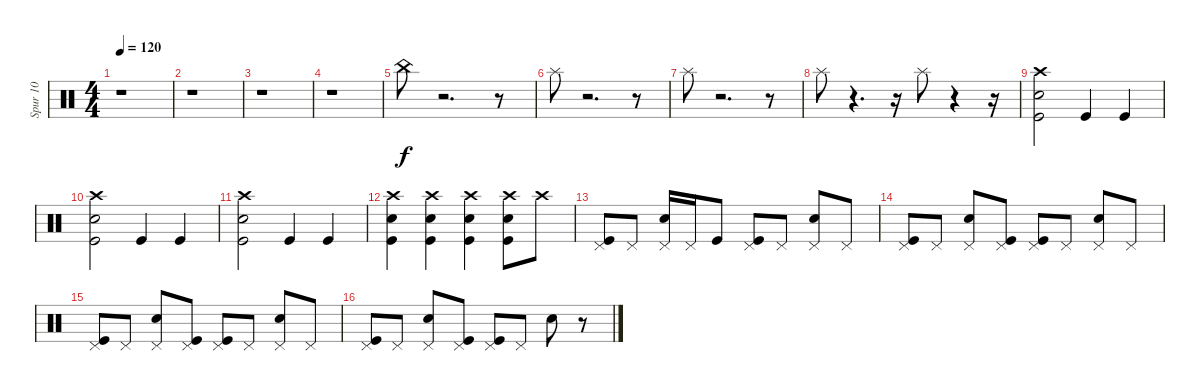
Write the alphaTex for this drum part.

\track ("Spur 10" "Spur 10") {instrument percussion}
\staff {score}
\articulation defaults
\ts (4 4)
\tempo 120
\clef neutral
\ks c
r.1{dy f} |
r.1 |
r.1 |
r.1 |
"China (hit)".8 r.2{d} r.8 |
"Splash (hit)".8 r.2{d} r.8 |
"Splash (hit)".8 r.2{d} r.8 |
"Splash (hit)".8 r.4{d} r.16 "Splash (hit)".8 r.4 r.16 |
("Crash high (hit)" "Snare (hit) 2" "Kick (hit)").2 "Kick (hit)".4 "Kick (hit)".4 |
("Crash high (hit)" "Snare (hit) 2" "Kick (hit)").2 "Kick (hit)".4 "Kick (hit)".4 |
("Crash high (hit)" "Snare (hit) 2" "Kick (hit)").2 "Kick (hit)".4 "Kick (hit)".4 |
("Crash high (hit)" "Snare (hit) 2" "Kick (hit)").4 ("Crash high (hit)" "Kick (hit)" "Snare (hit) 2").4 ("Crash high (hit)" "Kick (hit)" "Snare (hit) 2").4 ("Crash high (hit)" "Kick (hit)" "Snare (hit) 2").8 "Crash high (hit)".8 |
("Kick (hit)" "Pedal Hi-Hat (hit)").8 "Pedal Hi-Hat (hit)".8 ("Snare (hit) 2" "Pedal Hi-Hat (hit)").16 "Pedal Hi-Hat (hit)".16 "Kick (hit)".8 ("Kick (hit)" "Pedal Hi-Hat (hit)").8 "Pedal Hi-Hat (hit)".8 ("Snare (hit) 2" "Pedal Hi-Hat (hit)").8 "Pedal Hi-Hat (hit)".8 |
("Kick (hit)" "Pedal Hi-Hat (hit)").8 "Pedal Hi-Hat (hit)".8 ("Snare (hit) 2" "Pedal Hi-Hat (hit)").8 ("Kick (hit)" "Pedal Hi-Hat (hit)").8 ("Kick (hit)" "Pedal Hi-Hat (hit)").8 "Pedal Hi-Hat (hit)".8 ("Snare (hit) 2" "Pedal Hi-Hat (hit)").8 "Pedal Hi-Hat (hit)".8 |
("Kick (hit)" "Pedal Hi-Hat (hit)").8 "Pedal Hi-Hat (hit)".8 ("Snare (hit) 2" "Pedal Hi-Hat (hit)").8 ("Kick (hit)" "Pedal Hi-Hat (hit)").8 ("Kick (hit)" "Pedal Hi-Hat (hit)").8 "Pedal Hi-Hat (hit)".8 ("Snare (hit) 2" "Pedal Hi-Hat (hit)").8 "Pedal Hi-Hat (hit)".8 |
("Kick (hit)" "Pedal Hi-Hat (hit)").8 "Pedal Hi-Hat (hit)".8 ("Snare (hit) 2" "Pedal Hi-Hat (hit)").8 ("Kick (hit)" "Pedal Hi-Hat (hit)").8 ("Kick (hit)" "Pedal Hi-Hat (hit)").8 "Pedal Hi-Hat (hit)".8 "Snare (hit) 2".8 r.8
